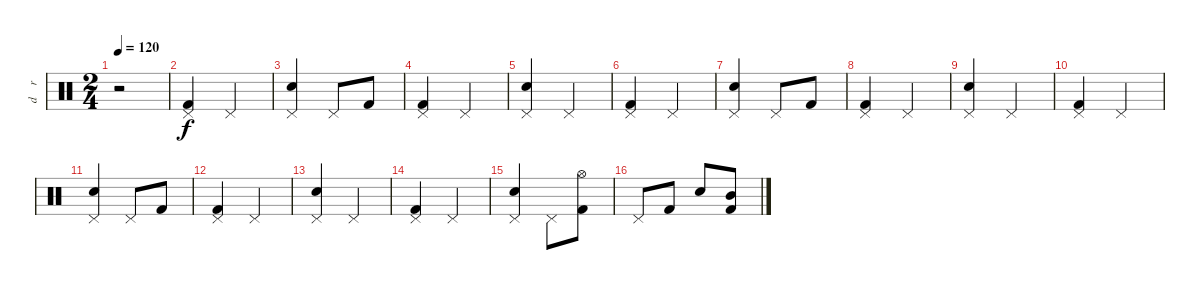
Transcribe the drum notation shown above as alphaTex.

\track ("d    r     u    m    s" "d    r    ") {instrument percussion}
\staff {score}
\articulation defaults
\ts (2 4)
\tempo 120
\clef neutral
\ks c
r.2{dy f} |
("Pedal Hi-Hat (hit)" "Kick (hit) 2").4 "Pedal Hi-Hat (hit)".4 |
("Pedal Hi-Hat (hit)" "Snare (hit) 2").4 "Pedal Hi-Hat (hit)".8 "Kick (hit) 2".8 |
("Pedal Hi-Hat (hit)" "Kick (hit) 2").4 "Pedal Hi-Hat (hit)".4 |
("Pedal Hi-Hat (hit)" "Snare (hit) 2").4 "Pedal Hi-Hat (hit)".4 |
("Pedal Hi-Hat (hit)" "Kick (hit) 2").4 "Pedal Hi-Hat (hit)".4 |
("Pedal Hi-Hat (hit)" "Snare (hit) 2").4 "Pedal Hi-Hat (hit)".8 "Kick (hit) 2".8 |
("Pedal Hi-Hat (hit)" "Kick (hit) 2").4 "Pedal Hi-Hat (hit)".4 |
("Pedal Hi-Hat (hit)" "Snare (hit) 2").4 "Pedal Hi-Hat (hit)".4 |
("Pedal Hi-Hat (hit)" "Kick (hit) 2").4 "Pedal Hi-Hat (hit)".4 |
("Pedal Hi-Hat (hit)" "Snare (hit) 2").4 "Pedal Hi-Hat (hit)".8 "Kick (hit) 2".8 |
("Pedal Hi-Hat (hit)" "Kick (hit) 2").4 "Pedal Hi-Hat (hit)".4 |
("Pedal Hi-Hat (hit)" "Snare (hit) 2").4 "Pedal Hi-Hat (hit)".4 |
("Pedal Hi-Hat (hit)" "Kick (hit) 2").4 "Pedal Hi-Hat (hit)".4 |
("Pedal Hi-Hat (hit)" "Snare (hit) 2").4 "Pedal Hi-Hat (hit)".8 ("Hi-Hat (open)" "Kick (hit) 2").8 |
"Pedal Hi-Hat (hit)".8 "Kick (hit) 2".8 "Snare (hit) 2".8 ("Mid Tom (hit)" "Kick (hit) 2").8
